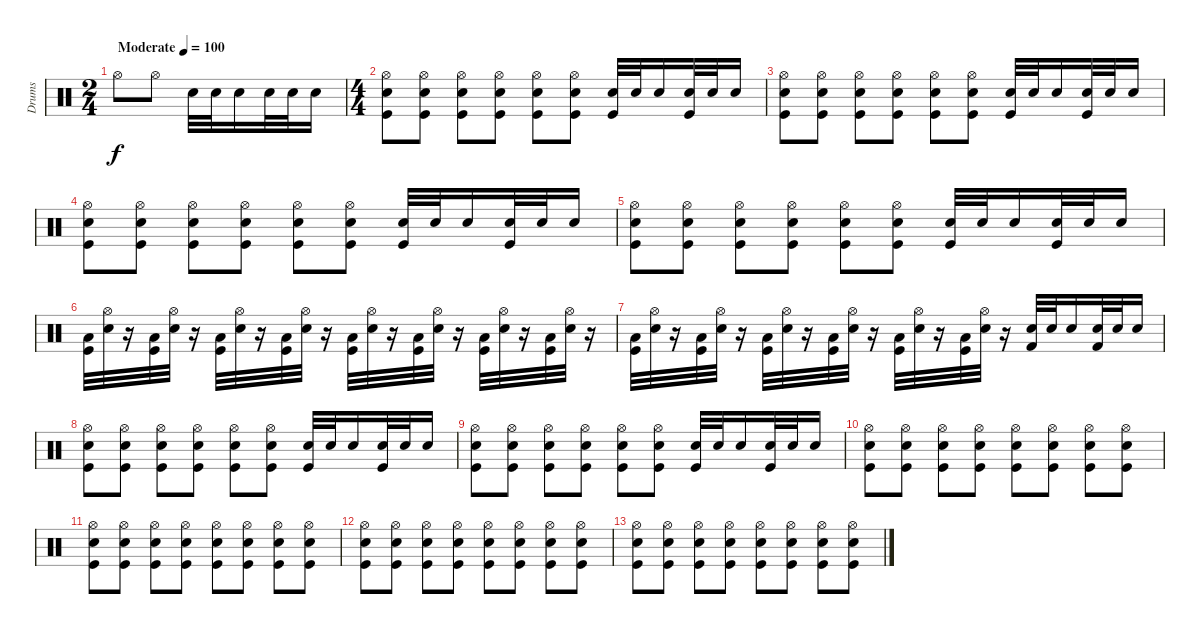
\track ("Drums" "Drums") {instrument percussion}
\staff {score}
\articulation defaults
\ts (2 4)
\tempo (100 "Moderate")
\clef neutral
\ks c "Hi-Hat (open)".8{dy f} "Hi-Hat (open)".8 "Snare (hit) 2".32 "Snare (hit) 2".32 "Snare (hit) 2".16 "Snare (hit) 2".32 "Snare (hit) 2".32 "Snare (hit) 2".16
|
\ts (4 4)
("Hi-Hat (open)" "Snare (hit) 2" "Kick (hit)").8 ("Hi-Hat (open)" "Snare (hit) 2" "Kick (hit)").8 ("Hi-Hat (open)" "Snare (hit) 2" "Kick (hit)").8 ("Hi-Hat (open)" "Snare (hit) 2" "Kick (hit)").8 ("Hi-Hat (open)" "Snare (hit) 2" "Kick (hit)").8 ("Hi-Hat (open)" "Snare (hit) 2" "Kick (hit)").8 ("Snare (hit) 2" "Kick (hit)").32 "Snare (hit) 2".32 "Snare (hit) 2".16 ("Snare (hit) 2" "Kick (hit)").32 "Snare (hit) 2".32 "Snare (hit) 2".16 |
("Hi-Hat (open)" "Snare (hit) 2" "Kick (hit)").8 ("Hi-Hat (open)" "Snare (hit) 2" "Kick (hit)").8 ("Hi-Hat (open)" "Snare (hit) 2" "Kick (hit)").8 ("Hi-Hat (open)" "Snare (hit) 2" "Kick (hit)").8 ("Hi-Hat (open)" "Snare (hit) 2" "Kick (hit)").8 ("Hi-Hat (open)" "Snare (hit) 2" "Kick (hit)").8 ("Snare (hit) 2" "Kick (hit)").32 "Snare (hit) 2".32 "Snare (hit) 2".16 ("Snare (hit) 2" "Kick (hit)").32 "Snare (hit) 2".32 "Snare (hit) 2".16 |
("Hi-Hat (open)" "Snare (hit) 2" "Kick (hit)").8 ("Hi-Hat (open)" "Snare (hit) 2" "Kick (hit)").8 ("Hi-Hat (open)" "Snare (hit) 2" "Kick (hit)").8 ("Hi-Hat (open)" "Snare (hit) 2" "Kick (hit)").8 ("Hi-Hat (open)" "Snare (hit) 2" "Kick (hit)").8 ("Hi-Hat (open)" "Snare (hit) 2" "Kick (hit)").8 ("Snare (hit) 2" "Kick (hit)").32 "Snare (hit) 2".32 "Snare (hit) 2".16 ("Snare (hit) 2" "Kick (hit)").32 "Snare (hit) 2".32 "Snare (hit) 2".16 |
("Hi-Hat (open)" "Snare (hit) 2" "Kick (hit)").8 ("Hi-Hat (open)" "Snare (hit) 2" "Kick (hit)").8 ("Hi-Hat (open)" "Snare (hit) 2" "Kick (hit)").8 ("Hi-Hat (open)" "Snare (hit) 2" "Kick (hit)").8 ("Hi-Hat (open)" "Snare (hit) 2" "Kick (hit)").8 ("Hi-Hat (open)" "Snare (hit) 2" "Kick (hit)").8 ("Snare (hit) 2" "Kick (hit)").32 "Snare (hit) 2".32 "Snare (hit) 2".16 ("Snare (hit) 2" "Kick (hit)").32 "Snare (hit) 2".32 "Snare (hit) 2".16 |
("Low Floor Tom (hit)" "Kick (hit)").32 ("Hi-Hat (open)" "Snare (hit) 2").32 r.16 ("Low Floor Tom (hit)" "Kick (hit)").32 ("Hi-Hat (open)" "Snare (hit) 2").32 r.16 ("Low Floor Tom (hit)" "Kick (hit)").32 ("Hi-Hat (open)" "Snare (hit) 2").32 r.16 ("Low Floor Tom (hit)" "Kick (hit)").32 ("Hi-Hat (open)" "Snare (hit) 2").32 r.16 ("Low Floor Tom (hit)" "Kick (hit)").32 ("Hi-Hat (open)" "Snare (hit) 2").32 r.16 ("Low Floor Tom (hit)" "Kick (hit)").32 ("Hi-Hat (open)" "Snare (hit) 2").32 r.16 ("Low Floor Tom (hit)" "Kick (hit)").32 ("Hi-Hat (open)" "Snare (hit) 2").32 r.16 ("Low Floor Tom (hit)" "Kick (hit)").32 ("Hi-Hat (open)" "Snare (hit) 2").32 r.16 |
("Low Floor Tom (hit)" "Kick (hit)").32 ("Hi-Hat (open)" "Snare (hit) 2").32 r.16 ("Low Floor Tom (hit)" "Kick (hit)").32 ("Hi-Hat (open)" "Snare (hit) 2").32 r.16 ("Low Floor Tom (hit)" "Kick (hit)").32 ("Hi-Hat (open)" "Snare (hit) 2").32 r.16 ("Low Floor Tom (hit)" "Kick (hit)").32 ("Hi-Hat (open)" "Snare (hit) 2").32 r.16 ("Low Floor Tom (hit)" "Kick (hit)").32 ("Hi-Hat (open)" "Snare (hit) 2").32 r.16 ("Low Floor Tom (hit)" "Kick (hit)").32 ("Hi-Hat (open)" "Snare (hit) 2").32 r.16 ("Snare (hit) 2" "Kick (hit) 2").32 "Snare (hit) 2".32 "Snare (hit) 2".16 ("Snare (hit) 2" "Kick (hit) 2").32 "Snare (hit) 2".32 "Snare (hit) 2".16 |
("Hi-Hat (open)" "Snare (hit) 2" "Kick (hit)").8 ("Hi-Hat (open)" "Snare (hit) 2" "Kick (hit)").8 ("Hi-Hat (open)" "Snare (hit) 2" "Kick (hit)").8 ("Hi-Hat (open)" "Snare (hit) 2" "Kick (hit)").8 ("Hi-Hat (open)" "Snare (hit) 2" "Kick (hit)").8 ("Hi-Hat (open)" "Snare (hit) 2" "Kick (hit)").8 ("Snare (hit) 2" "Kick (hit)").32 "Snare (hit) 2".32 "Snare (hit) 2".16 ("Snare (hit) 2" "Kick (hit)").32 "Snare (hit) 2".32 "Snare (hit) 2".16 |
("Hi-Hat (open)" "Snare (hit) 2" "Kick (hit)").8 ("Hi-Hat (open)" "Snare (hit) 2" "Kick (hit)").8 ("Hi-Hat (open)" "Snare (hit) 2" "Kick (hit)").8 ("Hi-Hat (open)" "Snare (hit) 2" "Kick (hit)").8 ("Hi-Hat (open)" "Snare (hit) 2" "Kick (hit)").8 ("Hi-Hat (open)" "Snare (hit) 2" "Kick (hit)").8 ("Snare (hit) 2" "Kick (hit)").32 "Snare (hit) 2".32 "Snare (hit) 2".16 ("Snare (hit) 2" "Kick (hit)").32 "Snare (hit) 2".32 "Snare (hit) 2".16 |
("Hi-Hat (open)" "Snare (hit) 2" "Kick (hit)").8 ("Hi-Hat (open)" "Snare (hit) 2" "Kick (hit)").8 ("Hi-Hat (open)" "Snare (hit) 2" "Kick (hit)").8 ("Hi-Hat (open)" "Snare (hit) 2" "Kick (hit)").8 ("Hi-Hat (open)" "Snare (hit) 2" "Kick (hit)").8 ("Hi-Hat (open)" "Snare (hit) 2" "Kick (hit)").8 ("Hi-Hat (open)" "Snare (hit) 2" "Kick (hit)").8 ("Hi-Hat (open)" "Snare (hit) 2" "Kick (hit)").8 |
("Hi-Hat (open)" "Snare (hit) 2" "Kick (hit)").8 ("Hi-Hat (open)" "Snare (hit) 2" "Kick (hit)").8 ("Hi-Hat (open)" "Snare (hit) 2" "Kick (hit)").8 ("Hi-Hat (open)" "Snare (hit) 2" "Kick (hit)").8 ("Hi-Hat (open)" "Snare (hit) 2" "Kick (hit)").8 ("Hi-Hat (open)" "Snare (hit) 2" "Kick (hit)").8 ("Hi-Hat (open)" "Snare (hit) 2" "Kick (hit)").8 ("Hi-Hat (open)" "Snare (hit) 2" "Kick (hit)").8 |
("Hi-Hat (open)" "Snare (hit) 2" "Kick (hit)").8 ("Hi-Hat (open)" "Snare (hit) 2" "Kick (hit)").8 ("Hi-Hat (open)" "Snare (hit) 2" "Kick (hit)").8 ("Hi-Hat (open)" "Snare (hit) 2" "Kick (hit)").8 ("Hi-Hat (open)" "Snare (hit) 2" "Kick (hit)").8 ("Hi-Hat (open)" "Snare (hit) 2" "Kick (hit)").8 ("Hi-Hat (open)" "Snare (hit) 2" "Kick (hit)").8 ("Hi-Hat (open)" "Snare (hit) 2" "Kick (hit)").8 |
("Hi-Hat (open)" "Snare (hit) 2" "Kick (hit)").8 ("Hi-Hat (open)" "Snare (hit) 2" "Kick (hit)").8 ("Hi-Hat (open)" "Snare (hit) 2" "Kick (hit)").8 ("Hi-Hat (open)" "Snare (hit) 2" "Kick (hit)").8 ("Hi-Hat (open)" "Snare (hit) 2" "Kick (hit)").8 ("Hi-Hat (open)" "Snare (hit) 2" "Kick (hit)").8 ("Hi-Hat (open)" "Snare (hit) 2" "Kick (hit)").8 ("Hi-Hat (open)" "Snare (hit) 2" "Kick (hit)").8
